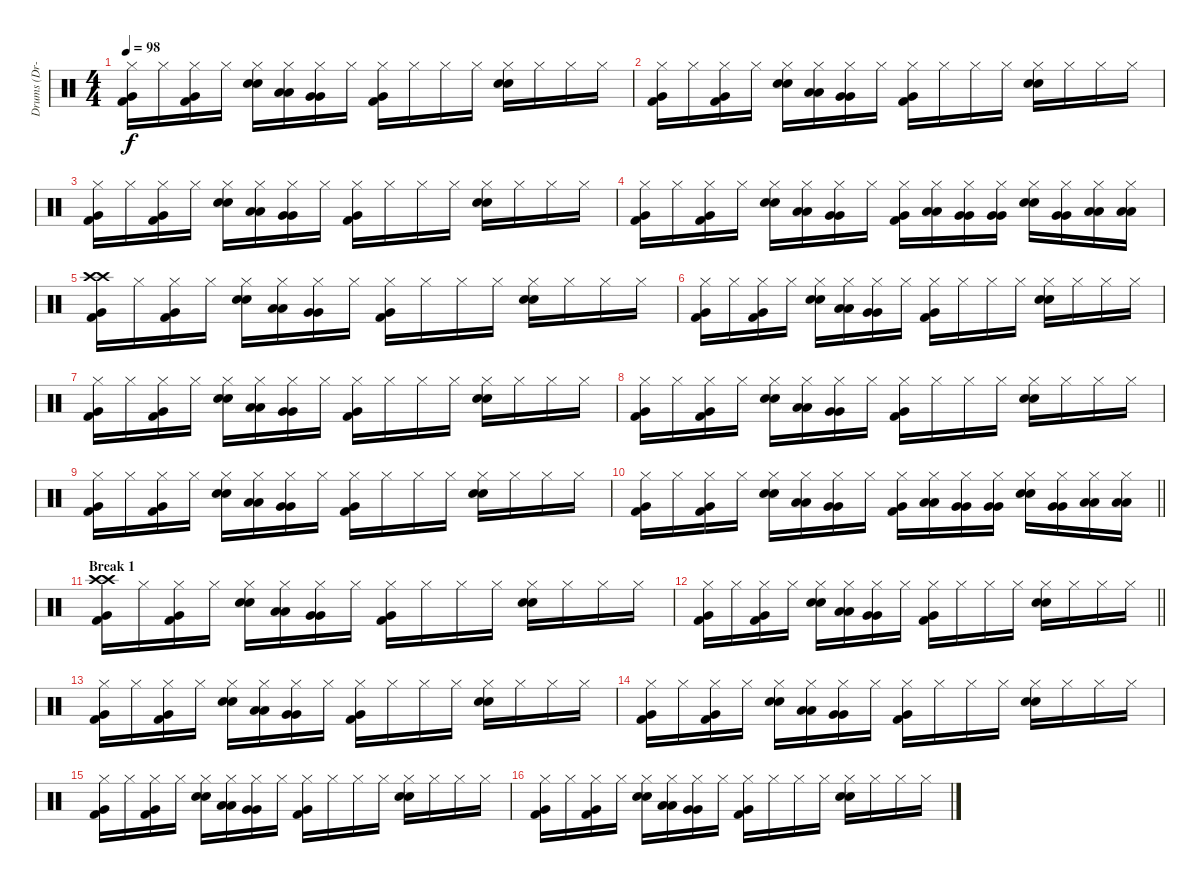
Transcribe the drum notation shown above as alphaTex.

\track ("Drums (Dr-0)" "Drums (Dr-") {instrument percussion}
\staff {score}
\articulation defaults
\ts (4 4)
\tempo 98
\clef neutral
\ks c
("Hi-Hat (closed)" "Very Low Tom (hit)" "Kick (hit) 2").16{dy f} "Hi-Hat (closed)".16 ("Hi-Hat (closed)" "Very Low Tom (hit)" "Kick (hit) 2").16 "Hi-Hat (closed)".16 ("Hi-Hat (closed)" "Electric Snare (hit)" "Snare (hit) 2").16 ("Hi-Hat (closed)" "Low Tom (hit)" "Low Tom (hit)").16 ("Hi-Hat (closed)" "Very Low Tom (hit)" "Very Low Tom (hit)").16 "Hi-Hat (closed)".16 ("Hi-Hat (closed)" "Very Low Tom (hit)" "Kick (hit) 2").16 "Hi-Hat (closed)".16 "Hi-Hat (closed)".16 "Hi-Hat (closed)".16 ("Hi-Hat (closed)" "Electric Snare (hit)" "Snare (hit) 2").16 "Hi-Hat (closed)".16 "Hi-Hat (closed)".16 "Hi-Hat (closed)".16 |
("Hi-Hat (closed)" "Very Low Tom (hit)" "Kick (hit) 2").16 "Hi-Hat (closed)".16 ("Hi-Hat (closed)" "Very Low Tom (hit)" "Kick (hit) 2").16 "Hi-Hat (closed)".16 ("Hi-Hat (closed)" "Electric Snare (hit)" "Snare (hit) 2").16 ("Hi-Hat (closed)" "Low Tom (hit)" "Low Tom (hit)").16 ("Hi-Hat (closed)" "Very Low Tom (hit)" "Very Low Tom (hit)").16 "Hi-Hat (closed)".16 ("Hi-Hat (closed)" "Very Low Tom (hit)" "Kick (hit) 2").16 "Hi-Hat (closed)".16 "Hi-Hat (closed)".16 "Hi-Hat (closed)".16 ("Hi-Hat (closed)" "Electric Snare (hit)" "Snare (hit) 2").16 "Hi-Hat (closed)".16 "Hi-Hat (closed)".16 "Hi-Hat (closed)".16 |
("Hi-Hat (closed)" "Very Low Tom (hit)" "Kick (hit) 2").16 "Hi-Hat (closed)".16 ("Hi-Hat (closed)" "Very Low Tom (hit)" "Kick (hit) 2").16 "Hi-Hat (closed)".16 ("Hi-Hat (closed)" "Electric Snare (hit)" "Snare (hit) 2").16 ("Hi-Hat (closed)" "Low Tom (hit)" "Low Tom (hit)").16 ("Hi-Hat (closed)" "Very Low Tom (hit)" "Very Low Tom (hit)").16 "Hi-Hat (closed)".16 ("Hi-Hat (closed)" "Very Low Tom (hit)" "Kick (hit) 2").16 "Hi-Hat (closed)".16 "Hi-Hat (closed)".16 "Hi-Hat (closed)".16 ("Hi-Hat (closed)" "Electric Snare (hit)" "Snare (hit) 2").16 "Hi-Hat (closed)".16 "Hi-Hat (closed)".16 "Hi-Hat (closed)".16 |
("Hi-Hat (closed)" "Very Low Tom (hit)" "Kick (hit) 2").16 "Hi-Hat (closed)".16 ("Hi-Hat (closed)" "Very Low Tom (hit)" "Kick (hit) 2").16 "Hi-Hat (closed)".16 ("Hi-Hat (closed)" "Electric Snare (hit)" "Snare (hit) 2").16 ("Hi-Hat (closed)" "Low Tom (hit)" "Low Tom (hit)").16 ("Hi-Hat (closed)" "Very Low Tom (hit)" "Very Low Tom (hit)").16 "Hi-Hat (closed)".16 ("Hi-Hat (closed)" "Very Low Tom (hit)" "Kick (hit) 2").16 ("Hi-Hat (closed)" "Low Tom (hit)" "Low Tom (hit)").16 ("Hi-Hat (closed)" "Very Low Tom (hit)" "Very Low Tom (hit)").16 ("Hi-Hat (closed)" "Very Low Tom (hit)" "Very Low Tom (hit)").16 ("Hi-Hat (closed)" "Electric Snare (hit)" "Snare (hit) 2").16 ("Hi-Hat (closed)" "Very Low Tom (hit)" "Very Low Tom (hit)").16 ("Hi-Hat (closed)" "Low Floor Tom (hit)" "Low Floor Tom (hit)").16 ("Hi-Hat (closed)" "Low Floor Tom (hit)" "Low Floor Tom (hit)").16 |
("Crash high (hit)" "Crash high (hit)" "Very Low Tom (hit)" "Kick (hit) 2").16 "Hi-Hat (closed)".16 ("Hi-Hat (closed)" "Very Low Tom (hit)" "Kick (hit) 2").16 "Hi-Hat (closed)".16 ("Hi-Hat (closed)" "Electric Snare (hit)" "Snare (hit) 2").16 ("Hi-Hat (closed)" "Low Tom (hit)" "Low Tom (hit)").16 ("Hi-Hat (closed)" "Very Low Tom (hit)" "Very Low Tom (hit)").16 "Hi-Hat (closed)".16 ("Hi-Hat (closed)" "Very Low Tom (hit)" "Kick (hit) 2").16 "Hi-Hat (closed)".16 "Hi-Hat (closed)".16 "Hi-Hat (closed)".16 ("Hi-Hat (closed)" "Electric Snare (hit)" "Snare (hit) 2").16 "Hi-Hat (closed)".16 "Hi-Hat (closed)".16 "Hi-Hat (closed)".16 |
("Hi-Hat (closed)" "Very Low Tom (hit)" "Kick (hit) 2").16 "Hi-Hat (closed)".16 ("Hi-Hat (closed)" "Very Low Tom (hit)" "Kick (hit) 2").16 "Hi-Hat (closed)".16 ("Hi-Hat (closed)" "Electric Snare (hit)" "Snare (hit) 2").16 ("Hi-Hat (closed)" "Low Tom (hit)" "Low Tom (hit)").16 ("Hi-Hat (closed)" "Very Low Tom (hit)" "Very Low Tom (hit)").16 "Hi-Hat (closed)".16 ("Hi-Hat (closed)" "Very Low Tom (hit)" "Kick (hit) 2").16 "Hi-Hat (closed)".16 "Hi-Hat (closed)".16 "Hi-Hat (closed)".16 ("Hi-Hat (closed)" "Electric Snare (hit)" "Snare (hit) 2").16 "Hi-Hat (closed)".16 "Hi-Hat (closed)".16 "Hi-Hat (closed)".16 |
("Hi-Hat (closed)" "Very Low Tom (hit)" "Kick (hit) 2").16 "Hi-Hat (closed)".16 ("Hi-Hat (closed)" "Very Low Tom (hit)" "Kick (hit) 2").16 "Hi-Hat (closed)".16 ("Hi-Hat (closed)" "Electric Snare (hit)" "Snare (hit) 2").16 ("Hi-Hat (closed)" "Low Tom (hit)" "Low Tom (hit)").16 ("Hi-Hat (closed)" "Very Low Tom (hit)" "Very Low Tom (hit)").16 "Hi-Hat (closed)".16 ("Hi-Hat (closed)" "Very Low Tom (hit)" "Kick (hit) 2").16 "Hi-Hat (closed)".16 "Hi-Hat (closed)".16 "Hi-Hat (closed)".16 ("Hi-Hat (closed)" "Electric Snare (hit)" "Snare (hit) 2").16 "Hi-Hat (closed)".16 "Hi-Hat (closed)".16 "Hi-Hat (closed)".16 |
("Hi-Hat (closed)" "Very Low Tom (hit)" "Kick (hit) 2").16 "Hi-Hat (closed)".16 ("Hi-Hat (closed)" "Very Low Tom (hit)" "Kick (hit) 2").16 "Hi-Hat (closed)".16 ("Hi-Hat (closed)" "Electric Snare (hit)" "Snare (hit) 2").16 ("Hi-Hat (closed)" "Low Tom (hit)" "Low Tom (hit)").16 ("Hi-Hat (closed)" "Very Low Tom (hit)" "Very Low Tom (hit)").16 "Hi-Hat (closed)".16 ("Hi-Hat (closed)" "Very Low Tom (hit)" "Kick (hit) 2").16 "Hi-Hat (closed)".16 "Hi-Hat (closed)".16 "Hi-Hat (closed)".16 ("Hi-Hat (closed)" "Electric Snare (hit)" "Snare (hit) 2").16 "Hi-Hat (closed)".16 "Hi-Hat (closed)".16 "Hi-Hat (closed)".16 |
("Hi-Hat (closed)" "Very Low Tom (hit)" "Kick (hit) 2").16 "Hi-Hat (closed)".16 ("Hi-Hat (closed)" "Very Low Tom (hit)" "Kick (hit) 2").16 "Hi-Hat (closed)".16 ("Hi-Hat (closed)" "Electric Snare (hit)" "Snare (hit) 2").16 ("Hi-Hat (closed)" "Low Tom (hit)" "Low Tom (hit)").16 ("Hi-Hat (closed)" "Very Low Tom (hit)" "Very Low Tom (hit)").16 "Hi-Hat (closed)".16 ("Hi-Hat (closed)" "Very Low Tom (hit)" "Kick (hit) 2").16 "Hi-Hat (closed)".16 "Hi-Hat (closed)".16 "Hi-Hat (closed)".16 ("Hi-Hat (closed)" "Electric Snare (hit)" "Snare (hit) 2").16 "Hi-Hat (closed)".16 "Hi-Hat (closed)".16 "Hi-Hat (closed)".16 |
\barLineRight lightlight
("Hi-Hat (closed)" "Very Low Tom (hit)" "Kick (hit) 2").16 "Hi-Hat (closed)".16 ("Hi-Hat (closed)" "Very Low Tom (hit)" "Kick (hit) 2").16 "Hi-Hat (closed)".16 ("Hi-Hat (closed)" "Electric Snare (hit)" "Snare (hit) 2").16 ("Hi-Hat (closed)" "Low Tom (hit)" "Low Tom (hit)").16 ("Hi-Hat (closed)" "Very Low Tom (hit)" "Very Low Tom (hit)").16 "Hi-Hat (closed)".16 ("Hi-Hat (closed)" "Very Low Tom (hit)" "Kick (hit) 2").16 ("Hi-Hat (closed)" "Low Tom (hit)" "Low Tom (hit)").16 ("Hi-Hat (closed)" "Very Low Tom (hit)" "Very Low Tom (hit)").16 ("Hi-Hat (closed)" "Very Low Tom (hit)" "Very Low Tom (hit)").16 ("Hi-Hat (closed)" "Electric Snare (hit)" "Snare (hit) 2").16 ("Hi-Hat (closed)" "Very Low Tom (hit)" "Very Low Tom (hit)").16 ("Hi-Hat (closed)" "Low Floor Tom (hit)" "Low Floor Tom (hit)").16 ("Hi-Hat (closed)" "Low Floor Tom (hit)" "Low Floor Tom (hit)").16 |
\section ("" "Break 1")
("Crash high (hit)" "Crash high (hit)" "Very Low Tom (hit)" "Kick (hit) 2").16 "Hi-Hat (closed)".16 ("Hi-Hat (closed)" "Very Low Tom (hit)" "Kick (hit) 2").16 "Hi-Hat (closed)".16 ("Hi-Hat (closed)" "Electric Snare (hit)" "Snare (hit) 2").16 ("Hi-Hat (closed)" "Low Tom (hit)" "Low Tom (hit)").16 ("Hi-Hat (closed)" "Very Low Tom (hit)" "Very Low Tom (hit)").16 "Hi-Hat (closed)".16 ("Hi-Hat (closed)" "Very Low Tom (hit)" "Kick (hit) 2").16 "Hi-Hat (closed)".16 "Hi-Hat (closed)".16 "Hi-Hat (closed)".16 ("Hi-Hat (closed)" "Electric Snare (hit)" "Snare (hit) 2").16 "Hi-Hat (closed)".16 "Hi-Hat (closed)".16 "Hi-Hat (closed)".16 |
\barLineRight lightlight
("Hi-Hat (closed)" "Very Low Tom (hit)" "Kick (hit) 2").16 "Hi-Hat (closed)".16 ("Hi-Hat (closed)" "Very Low Tom (hit)" "Kick (hit) 2").16 "Hi-Hat (closed)".16 ("Hi-Hat (closed)" "Electric Snare (hit)" "Snare (hit) 2").16 ("Hi-Hat (closed)" "Low Tom (hit)" "Low Tom (hit)").16 ("Hi-Hat (closed)" "Very Low Tom (hit)" "Very Low Tom (hit)").16 "Hi-Hat (closed)".16 ("Hi-Hat (closed)" "Very Low Tom (hit)" "Kick (hit) 2").16 "Hi-Hat (closed)".16 "Hi-Hat (closed)".16 "Hi-Hat (closed)".16 ("Hi-Hat (closed)" "Electric Snare (hit)" "Snare (hit) 2").16 "Hi-Hat (closed)".16 "Hi-Hat (closed)".16 "Hi-Hat (closed)".16 |
("Hi-Hat (closed)" "Very Low Tom (hit)" "Kick (hit) 2").16 "Hi-Hat (closed)".16 ("Hi-Hat (closed)" "Very Low Tom (hit)" "Kick (hit) 2").16 "Hi-Hat (closed)".16 ("Hi-Hat (closed)" "Electric Snare (hit)" "Snare (hit) 2").16 ("Hi-Hat (closed)" "Low Tom (hit)" "Low Tom (hit)").16 ("Hi-Hat (closed)" "Very Low Tom (hit)" "Very Low Tom (hit)").16 "Hi-Hat (closed)".16 ("Hi-Hat (closed)" "Very Low Tom (hit)" "Kick (hit) 2").16 "Hi-Hat (closed)".16 "Hi-Hat (closed)".16 "Hi-Hat (closed)".16 ("Hi-Hat (closed)" "Electric Snare (hit)" "Snare (hit) 2").16 "Hi-Hat (closed)".16 "Hi-Hat (closed)".16 "Hi-Hat (closed)".16 |
("Hi-Hat (closed)" "Very Low Tom (hit)" "Kick (hit) 2").16 "Hi-Hat (closed)".16 ("Hi-Hat (closed)" "Very Low Tom (hit)" "Kick (hit) 2").16 "Hi-Hat (closed)".16 ("Hi-Hat (closed)" "Electric Snare (hit)" "Snare (hit) 2").16 ("Hi-Hat (closed)" "Low Tom (hit)" "Low Tom (hit)").16 ("Hi-Hat (closed)" "Very Low Tom (hit)" "Very Low Tom (hit)").16 "Hi-Hat (closed)".16 ("Hi-Hat (closed)" "Very Low Tom (hit)" "Kick (hit) 2").16 "Hi-Hat (closed)".16 "Hi-Hat (closed)".16 "Hi-Hat (closed)".16 ("Hi-Hat (closed)" "Electric Snare (hit)" "Snare (hit) 2").16 "Hi-Hat (closed)".16 "Hi-Hat (closed)".16 "Hi-Hat (closed)".16 |
("Hi-Hat (closed)" "Very Low Tom (hit)" "Kick (hit) 2").16 "Hi-Hat (closed)".16 ("Hi-Hat (closed)" "Very Low Tom (hit)" "Kick (hit) 2").16 "Hi-Hat (closed)".16 ("Hi-Hat (closed)" "Electric Snare (hit)" "Snare (hit) 2").16 ("Hi-Hat (closed)" "Low Tom (hit)" "Low Tom (hit)").16 ("Hi-Hat (closed)" "Very Low Tom (hit)" "Very Low Tom (hit)").16 "Hi-Hat (closed)".16 ("Hi-Hat (closed)" "Very Low Tom (hit)" "Kick (hit) 2").16 "Hi-Hat (closed)".16 "Hi-Hat (closed)".16 "Hi-Hat (closed)".16 ("Hi-Hat (closed)" "Electric Snare (hit)" "Snare (hit) 2").16 "Hi-Hat (closed)".16 "Hi-Hat (closed)".16 "Hi-Hat (closed)".16 |
("Hi-Hat (closed)" "Very Low Tom (hit)" "Kick (hit) 2").16 "Hi-Hat (closed)".16 ("Hi-Hat (closed)" "Very Low Tom (hit)" "Kick (hit) 2").16 "Hi-Hat (closed)".16 ("Hi-Hat (closed)" "Electric Snare (hit)" "Snare (hit) 2").16 ("Hi-Hat (closed)" "Low Tom (hit)" "Low Tom (hit)").16 ("Hi-Hat (closed)" "Very Low Tom (hit)" "Very Low Tom (hit)").16 "Hi-Hat (closed)".16 ("Hi-Hat (closed)" "Very Low Tom (hit)" "Kick (hit) 2").16 "Hi-Hat (closed)".16 "Hi-Hat (closed)".16 "Hi-Hat (closed)".16 ("Hi-Hat (closed)" "Electric Snare (hit)" "Snare (hit) 2").16 "Hi-Hat (closed)".16 "Hi-Hat (closed)".16 "Hi-Hat (closed)".16
